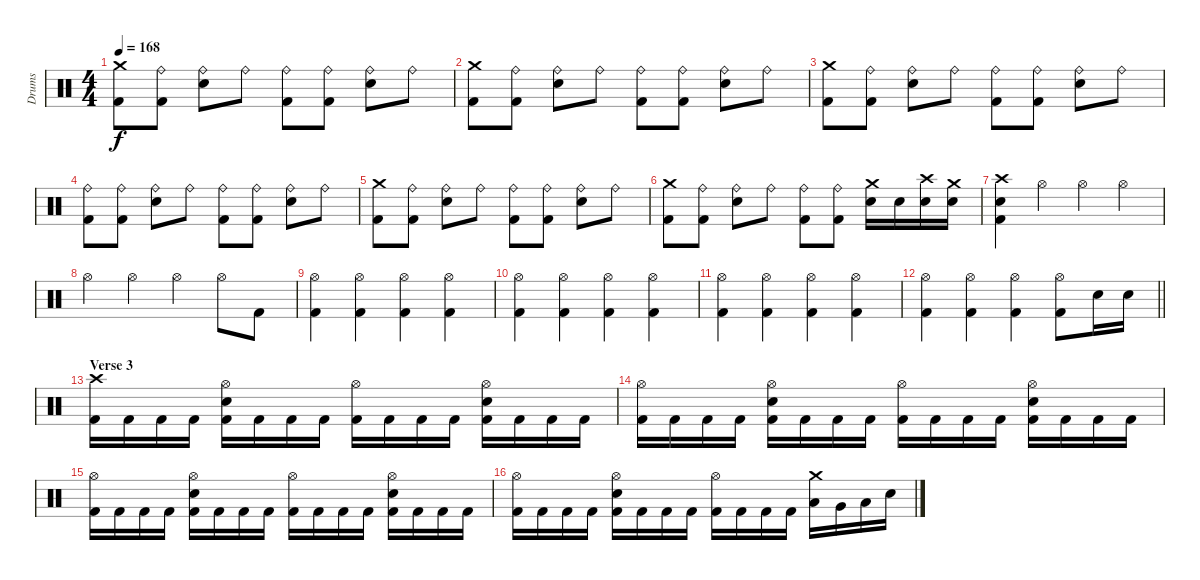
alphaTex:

\track ("Drums" "Drums") {instrument percussion}
\staff {score}
\articulation defaults
\ts (4 4)
\tempo 168
\clef neutral
\ks c
("Crash medium (hit)" "Kick (hit) 2").8{dy f} ("Ride (bell)" "Kick (hit) 2").8 ("Ride (bell)" "Electric Snare (hit)").8 "Ride (bell)".8 ("Ride (bell)" "Kick (hit) 2").8 ("Ride (bell)" "Kick (hit) 2").8 ("Ride (bell)" "Electric Snare (hit)").8 "Ride (bell)".8 |
("Crash medium (hit)" "Kick (hit) 2").8 ("Ride (bell)" "Kick (hit) 2").8 ("Ride (bell)" "Electric Snare (hit)").8 "Ride (bell)".8 ("Ride (bell)" "Kick (hit) 2").8 ("Ride (bell)" "Kick (hit) 2").8 ("Ride (bell)" "Electric Snare (hit)").8 "Ride (bell)".8 |
("Crash medium (hit)" "Kick (hit) 2").8 ("Ride (bell)" "Kick (hit) 2").8 ("Ride (bell)" "Electric Snare (hit)").8 "Ride (bell)".8 ("Ride (bell)" "Kick (hit) 2").8 ("Ride (bell)" "Kick (hit) 2").8 ("Ride (bell)" "Electric Snare (hit)").8 "Ride (bell)".8 |
("Ride (bell)" "Kick (hit) 2").8 ("Ride (bell)" "Kick (hit) 2").8 ("Ride (bell)" "Electric Snare (hit)").8 "Ride (bell)".8 ("Ride (bell)" "Kick (hit) 2").8 ("Ride (bell)" "Kick (hit) 2").8 ("Ride (bell)" "Electric Snare (hit)").8 "Ride (bell)".8 |
("Crash medium (hit)" "Kick (hit) 2").8 ("Ride (bell)" "Kick (hit) 2").8 ("Ride (bell)" "Electric Snare (hit)").8 "Ride (bell)".8 ("Ride (bell)" "Kick (hit) 2").8 ("Ride (bell)" "Kick (hit) 2").8 ("Ride (bell)" "Electric Snare (hit)").8 "Ride (bell)".8 |
("Crash medium (hit)" "Kick (hit) 2").8 ("Ride (bell)" "Kick (hit) 2").8 ("Ride (bell)" "Electric Snare (hit)").8 "Ride (bell)".8 ("Ride (bell)" "Kick (hit) 2").8 ("Ride (bell)" "Kick (hit) 2").8 ("Crash medium (hit)" "Electric Snare (hit)").16 "Electric Snare (hit)".16 ("Crash high (hit)" "Electric Snare (hit)").16 ("Crash medium (hit)" "Electric Snare (hit)").16 |
("Crash high (hit)" "Electric Snare (hit)" "Kick (hit) 2").4 "Hi-Hat (open)".4 "Hi-Hat (open)".4 "Hi-Hat (open)".4 |
"Hi-Hat (open)".4 "Hi-Hat (open)".4 "Hi-Hat (open)".4 "Hi-Hat (open)".8 "Kick (hit) 2".8 |
("Hi-Hat (open)" "Kick (hit) 2").4 ("Hi-Hat (open)" "Kick (hit) 2").4 ("Hi-Hat (open)" "Kick (hit) 2").4 ("Hi-Hat (open)" "Kick (hit) 2").4 |
("Hi-Hat (open)" "Kick (hit) 2").4 ("Hi-Hat (open)" "Kick (hit) 2").4 ("Hi-Hat (open)" "Kick (hit) 2").4 ("Hi-Hat (open)" "Kick (hit) 2").4 |
("Hi-Hat (open)" "Kick (hit) 2").4 ("Hi-Hat (open)" "Kick (hit) 2").4 ("Hi-Hat (open)" "Kick (hit) 2").4 ("Hi-Hat (open)" "Kick (hit) 2").4 |
\barLineRight lightlight
("Hi-Hat (open)" "Kick (hit) 2").4 ("Hi-Hat (open)" "Kick (hit) 2").4 ("Hi-Hat (open)" "Kick (hit) 2").4 ("Hi-Hat (open)" "Kick (hit) 2").8 "Electric Snare (hit)".16 "Electric Snare (hit)".16 |
\section ("" "Verse 3")
("Crash high (hit)" "Kick (hit) 2").16 "Kick (hit) 2".16 "Kick (hit) 2".16 "Kick (hit) 2".16 ("Hi-Hat (open)" "Electric Snare (hit)" "Kick (hit) 2").16 "Kick (hit) 2".16 "Kick (hit) 2".16 "Kick (hit) 2".16 ("Hi-Hat (open)" "Kick (hit) 2").16 "Kick (hit) 2".16 "Kick (hit) 2".16 "Kick (hit) 2".16 ("Hi-Hat (open)" "Electric Snare (hit)" "Kick (hit) 2").16 "Kick (hit) 2".16 "Kick (hit) 2".16 "Kick (hit) 2".16 |
("Hi-Hat (open)" "Kick (hit) 2").16 "Kick (hit) 2".16 "Kick (hit) 2".16 "Kick (hit) 2".16 ("Hi-Hat (open)" "Electric Snare (hit)" "Kick (hit) 2").16 "Kick (hit) 2".16 "Kick (hit) 2".16 "Kick (hit) 2".16 ("Hi-Hat (open)" "Kick (hit) 2").16 "Kick (hit) 2".16 "Kick (hit) 2".16 "Kick (hit) 2".16 ("Hi-Hat (open)" "Electric Snare (hit)" "Kick (hit) 2").16 "Kick (hit) 2".16 "Kick (hit) 2".16 "Kick (hit) 2".16 |
("Hi-Hat (open)" "Kick (hit) 2").16 "Kick (hit) 2".16 "Kick (hit) 2".16 "Kick (hit) 2".16 ("Hi-Hat (open)" "Electric Snare (hit)" "Kick (hit) 2").16 "Kick (hit) 2".16 "Kick (hit) 2".16 "Kick (hit) 2".16 ("Hi-Hat (open)" "Kick (hit) 2").16 "Kick (hit) 2".16 "Kick (hit) 2".16 "Kick (hit) 2".16 ("Hi-Hat (open)" "Electric Snare (hit)" "Kick (hit) 2").16 "Kick (hit) 2".16 "Kick (hit) 2".16 "Kick (hit) 2".16 |
("Hi-Hat (open)" "Kick (hit) 2").16 "Kick (hit) 2".16 "Kick (hit) 2".16 "Kick (hit) 2".16 ("Hi-Hat (open)" "Electric Snare (hit)" "Kick (hit) 2").16 "Kick (hit) 2".16 "Kick (hit) 2".16 "Kick (hit) 2".16 ("Hi-Hat (open)" "Kick (hit) 2").16 "Kick (hit) 2".16 "Kick (hit) 2".16 "Kick (hit) 2".16 ("Crash medium (hit)" "Low Tom (hit)").16 "Very Low Tom (hit)".16 "Low Floor Tom (hit)".16 "Electric Snare (hit)".16
